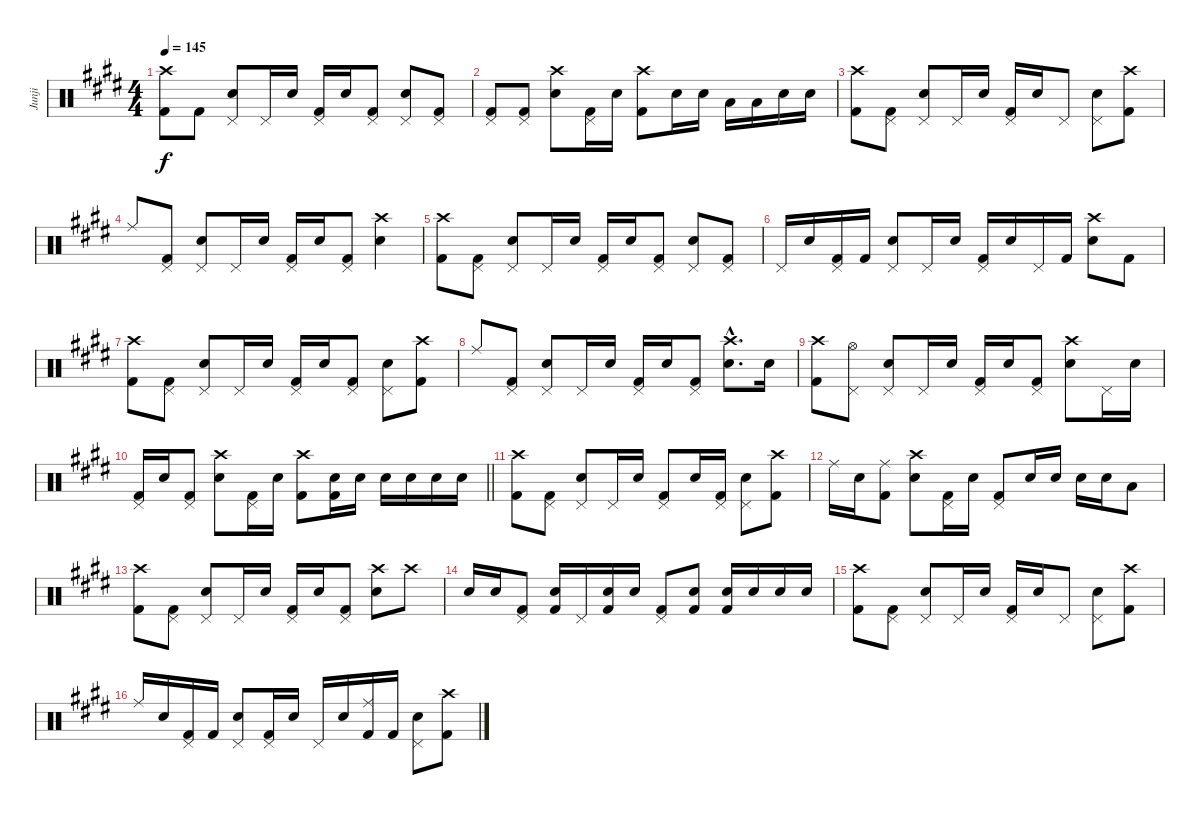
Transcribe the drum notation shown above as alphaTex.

\track ("Junji" "Junji") {instrument percussion}
\staff {score}
\articulation defaults
\ts (4 4)
\tempo 145
\clef neutral
\ks c#minor
("Crash high (hit)" "Kick (hit) 2").8{dy f} "Kick (hit) 2".8 ("Pedal Hi-Hat (hit)" "Snare (hit) 2").8 "Pedal Hi-Hat (hit)".16 "Snare (hit) 2".16 ("Pedal Hi-Hat (hit)" "Kick (hit) 2").16 "Snare (hit) 2".16 ("Pedal Hi-Hat (hit)" "Kick (hit) 2").8 ("Pedal Hi-Hat (hit)" "Snare (hit) 2").8 ("Pedal Hi-Hat (hit)" "Kick (hit) 2").8 |
("Pedal Hi-Hat (hit)" "Kick (hit) 2").8 ("Pedal Hi-Hat (hit)" "Kick (hit) 2").8 ("Crash high (hit)" "Snare (hit) 2").8 ("Pedal Hi-Hat (hit)" "Kick (hit) 2").16 "Snare (hit) 2".16 ("Crash high (hit)" "Kick (hit) 2").8 "Snare (hit) 2".16 "Snare (hit) 2".16 "Low Tom (hit)".16 "Low Tom (hit)".16 "Electric Snare (hit)".16 "Electric Snare (hit)".16 |
("Crash high (hit)" "Kick (hit) 2").8 ("Pedal Hi-Hat (hit)" "Kick (hit) 2").8 ("Pedal Hi-Hat (hit)" "Snare (hit) 2").8 "Pedal Hi-Hat (hit)".16 "Snare (hit) 2".16 ("Pedal Hi-Hat (hit)" "Kick (hit) 2").16 "Snare (hit) 2".16 "Pedal Hi-Hat (hit)".8 ("Pedal Hi-Hat (hit)" "Snare (hit) 2").8 ("Crash high (hit)" "Kick (hit) 2").8 |
"Ride (middle)".8 ("Pedal Hi-Hat (hit)" "Kick (hit) 2").8 ("Pedal Hi-Hat (hit)" "Snare (hit) 2").8 "Pedal Hi-Hat (hit)".16 "Snare (hit) 2".16 ("Pedal Hi-Hat (hit)" "Kick (hit) 2").16 "Snare (hit) 2".16 ("Pedal Hi-Hat (hit)" "Kick (hit) 2").8 ("Crash high (hit)" "Snare (hit) 2").4 |
("Crash high (hit)" "Kick (hit) 2").8 ("Pedal Hi-Hat (hit)" "Kick (hit) 2").8 ("Pedal Hi-Hat (hit)" "Snare (hit) 2").8 "Pedal Hi-Hat (hit)".16 "Snare (hit) 2".16 ("Pedal Hi-Hat (hit)" "Kick (hit) 2").16 "Snare (hit) 2".16 ("Pedal Hi-Hat (hit)" "Kick (hit) 2").8 ("Pedal Hi-Hat (hit)" "Snare (hit) 2").8 ("Pedal Hi-Hat (hit)" "Kick (hit) 2").8 |
"Pedal Hi-Hat (hit)".16 "Snare (hit) 2".16 ("Pedal Hi-Hat (hit)" "Kick (hit) 2").16 "Kick (hit) 2".16 ("Pedal Hi-Hat (hit)" "Snare (hit) 2").8 "Pedal Hi-Hat (hit)".16 "Snare (hit) 2".16 ("Pedal Hi-Hat (hit)" "Kick (hit) 2").16 "Snare (hit) 2".16 "Pedal Hi-Hat (hit)".16 "Kick (hit) 2".16 ("Crash high (hit)" "Snare (hit) 2").8 "Kick (hit) 2".8 |
("Crash high (hit)" "Kick (hit) 2").8 ("Pedal Hi-Hat (hit)" "Kick (hit) 2").8 ("Pedal Hi-Hat (hit)" "Snare (hit) 2").8 "Pedal Hi-Hat (hit)".16 "Snare (hit) 2".16 ("Pedal Hi-Hat (hit)" "Kick (hit) 2").16 "Snare (hit) 2".16 ("Pedal Hi-Hat (hit)" "Kick (hit) 2").8 ("Pedal Hi-Hat (hit)" "Snare (hit) 2").8 ("Crash high (hit)" "Kick (hit) 2").8 |
"Ride (middle)".8 ("Pedal Hi-Hat (hit)" "Kick (hit) 2").8 ("Pedal Hi-Hat (hit)" "Snare (hit) 2").8 "Pedal Hi-Hat (hit)".16 "Snare (hit) 2".16 ("Pedal Hi-Hat (hit)" "Kick (hit) 2").16 "Snare (hit) 2".16 ("Pedal Hi-Hat (hit)" "Kick (hit) 2").8 ("Crash high (hit)"{hac} "Snare (hit) 2"{hac}).8{d} "Snare (hit) 2".16 |
("Crash high (hit)" "Kick (hit) 2").8 ("Pedal Hi-Hat (hit)" "Hi-Hat (open)").8 ("Pedal Hi-Hat (hit)" "Snare (hit) 2").8 "Pedal Hi-Hat (hit)".16 "Snare (hit) 2".16 ("Pedal Hi-Hat (hit)" "Kick (hit) 2").16 "Snare (hit) 2".16 ("Pedal Hi-Hat (hit)" "Kick (hit) 2").8 ("Crash high (hit)" "Snare (hit) 2").8 "Pedal Hi-Hat (hit)".16 "Snare (hit) 2".16 |
\barLineRight lightlight
("Pedal Hi-Hat (hit)" "Kick (hit) 2").16 "Snare (hit) 2".16 ("Pedal Hi-Hat (hit)" "Kick (hit) 2").8 ("Crash high (hit)" "Snare (hit) 2").8 ("Pedal Hi-Hat (hit)" "Kick (hit) 2").16 "Snare (hit) 2".16 ("Crash high (hit)" "Kick (hit) 2").8 ("Snare (hit) 2" "Kick (hit) 2").16 "Snare (hit) 2".16 "Snare (hit) 2".16 "Snare (hit) 2".16 "Snare (hit) 2".16 "Snare (hit) 2".16 |
("Crash high (hit)" "Kick (hit) 2").8 ("Pedal Hi-Hat (hit)" "Kick (hit) 2").8 ("Pedal Hi-Hat (hit)" "Snare (hit) 2").8 "Pedal Hi-Hat (hit)".16 "Snare (hit) 2".16 ("Pedal Hi-Hat (hit)" "Kick (hit) 2").8 "Snare (hit) 2".16 ("Pedal Hi-Hat (hit)" "Kick (hit) 2").16 ("Pedal Hi-Hat (hit)" "Snare (hit) 2").8 ("Crash high (hit)" "Kick (hit) 2").8 |
"Ride (middle)".16 "Snare (hit) 2".16 ("Ride (middle)" "Kick (hit) 2").8 ("Crash high (hit)" "Snare (hit) 2").8 ("Pedal Hi-Hat (hit)" "Kick (hit) 2").16 "Snare (hit) 2".16 ("Pedal Hi-Hat (hit)" "Kick (hit) 2").8 "Snare (hit) 2".16 "Snare (hit) 2".16 "Electric Snare (hit)".16 "Electric Snare (hit)".16 "Low Floor Tom (hit)".8 |
("Crash high (hit)" "Kick (hit) 2").8 ("Pedal Hi-Hat (hit)" "Kick (hit) 2").8 ("Pedal Hi-Hat (hit)" "Snare (hit) 2").8 "Pedal Hi-Hat (hit)".16 "Snare (hit) 2".16 ("Pedal Hi-Hat (hit)" "Kick (hit) 2").16 "Snare (hit) 2".16 ("Pedal Hi-Hat (hit)" "Kick (hit) 2").8 ("Crash high (hit)" "Snare (hit) 2").8 "Crash high (hit)".8 |
"Snare (hit) 2".16 "Snare (hit) 2".16 ("Pedal Hi-Hat (hit)" "Kick (hit) 2").8 ("Snare (hit) 2" "Kick (hit) 2").16 "Pedal Hi-Hat (hit)".16 ("Snare (hit) 2" "Kick (hit) 2").16 "Snare (hit) 2".16 ("Pedal Hi-Hat (hit)" "Kick (hit) 2").8 ("Snare (hit) 2" "Kick (hit) 2").8 ("Snare (hit) 2" "Kick (hit) 2").16 "Snare (hit) 2".16 "Snare (hit) 2".16 "Snare (hit) 2".16 |
("Crash high (hit)" "Kick (hit) 2").8 ("Pedal Hi-Hat (hit)" "Kick (hit) 2").8 ("Pedal Hi-Hat (hit)" "Snare (hit) 2").8 "Pedal Hi-Hat (hit)".16 "Snare (hit) 2".16 ("Pedal Hi-Hat (hit)" "Kick (hit) 2").16 "Snare (hit) 2".16 "Pedal Hi-Hat (hit)".8 ("Pedal Hi-Hat (hit)" "Snare (hit) 2").8 ("Crash high (hit)" "Kick (hit) 2").8 |
"Ride (middle)".16 "Snare (hit) 2".16 ("Pedal Hi-Hat (hit)" "Kick (hit) 2").16 "Kick (hit) 2".16 ("Pedal Hi-Hat (hit)" "Snare (hit) 2").8 ("Pedal Hi-Hat (hit)" "Kick (hit) 2").16 "Snare (hit) 2".16 "Pedal Hi-Hat (hit)".16 "Snare (hit) 2".16 ("Ride (middle)" "Kick (hit) 2").16 "Kick (hit) 2".16 ("Pedal Hi-Hat (hit)" "Snare (hit) 2").8 ("Crash high (hit)" "Kick (hit) 2").8
